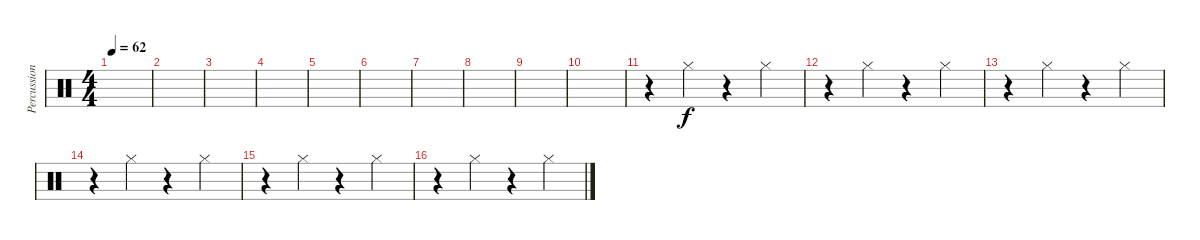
\track ("Percussion" "Percussion") {instrument percussion}
\staff {score}
\articulation defaults
\ts (4 4)
\tempo 62
\clef neutral
\ks c
|
|
|
|
|
|
|
|
|
|
r.4 "Hi-Hat (closed)".4 r.4 "Hi-Hat (closed)".4 |
r.4 "Hi-Hat (closed)".4 r.4 "Hi-Hat (closed)".4 |
r.4 "Hi-Hat (closed)".4 r.4 "Hi-Hat (closed)".4 |
r.4 "Hi-Hat (closed)".4 r.4 "Hi-Hat (closed)".4 |
r.4 "Hi-Hat (closed)".4 r.4 "Hi-Hat (closed)".4 |
r.4 "Hi-Hat (closed)".4 r.4 "Hi-Hat (closed)".4
